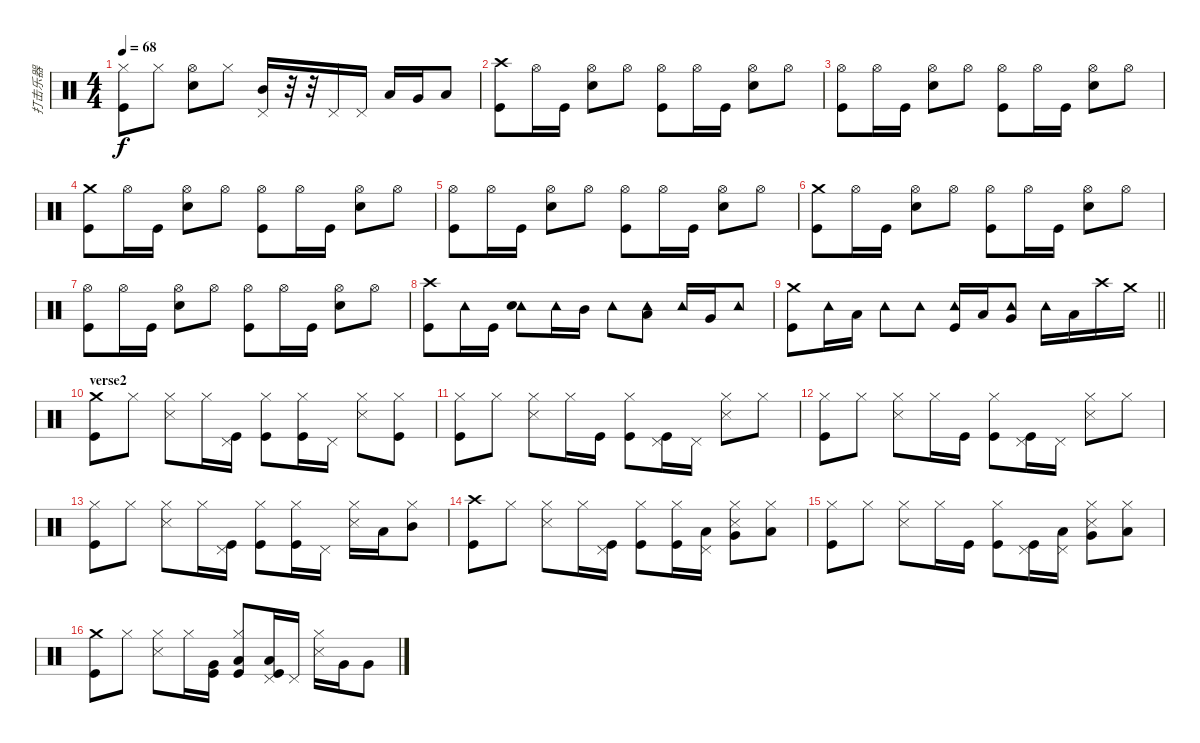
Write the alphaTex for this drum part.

\track ("打击乐器" "打击乐器") {instrument percussion}
\staff {score}
\articulation defaults
\ts (4 4)
\tempo 68
\clef neutral
\ks c
("Kick (hit)" "Hi-Hat (closed)").8{dy f} "Hi-Hat (closed)".8 ("Snare (hit) 2" "Hi-Hat (open)").8 "Hi-Hat (closed)".8 ("Mid Tom (hit)" "Pedal Hi-Hat (hit)").16 r.32 r.32 "Pedal Hi-Hat (hit)".16 "Pedal Hi-Hat (hit)".16 "Low Tom (hit)".16 "Very Low Tom (hit)".16 "Low Floor Tom (hit)".8 |
("Kick (hit)" "Crash high (hit)").8 "Hi-Hat (open)".16 "Kick (hit)".16 ("Hi-Hat (open)" "Snare (hit) 2").8 "Hi-Hat (open)".8 ("Hi-Hat (open)" "Kick (hit)").8 "Hi-Hat (open)".16 "Kick (hit)".16 ("Hi-Hat (open)" "Snare (hit) 2").8 "Hi-Hat (open)".8 |
("Hi-Hat (open)" "Kick (hit)").8 "Hi-Hat (open)".16 "Kick (hit)".16 ("Hi-Hat (open)" "Snare (hit) 2").8 "Hi-Hat (open)".8 ("Hi-Hat (open)" "Kick (hit)").8 "Hi-Hat (open)".16 "Kick (hit)".16 ("Hi-Hat (open)" "Snare (hit) 2").8 "Hi-Hat (open)".8 |
("Kick (hit)" "Crash medium (hit)").8 "Hi-Hat (open)".16 "Kick (hit)".16 ("Hi-Hat (open)" "Snare (hit) 2").8 "Hi-Hat (open)".8 ("Hi-Hat (open)" "Kick (hit)").8 "Hi-Hat (open)".16 "Kick (hit)".16 ("Hi-Hat (open)" "Snare (hit) 2").8 "Hi-Hat (open)".8 |
("Hi-Hat (open)" "Kick (hit)").8 "Hi-Hat (open)".16 "Kick (hit)".16 ("Hi-Hat (open)" "Snare (hit) 2").8 "Hi-Hat (open)".8 ("Hi-Hat (open)" "Kick (hit)").8 "Hi-Hat (open)".16 "Kick (hit)".16 ("Hi-Hat (open)" "Snare (hit) 2").8 "Hi-Hat (open)".8 |
("Kick (hit)" "Crash medium (hit)").8 "Hi-Hat (open)".16 "Kick (hit)".16 ("Hi-Hat (open)" "Snare (hit) 2").8 "Hi-Hat (open)".8 ("Hi-Hat (open)" "Kick (hit)").8 "Hi-Hat (open)".16 "Kick (hit)".16 ("Hi-Hat (open)" "Snare (hit) 2").8 "Hi-Hat (open)".8 |
("Hi-Hat (open)" "Kick (hit)").8 "Hi-Hat (open)".16 "Kick (hit)".16 ("Hi-Hat (open)" "Snare (hit) 2").8 "Hi-Hat (open)".8 ("Hi-Hat (open)" "Kick (hit)").8 "Hi-Hat (open)".16 "Kick (hit)".16 ("Hi-Hat (open)" "Snare (hit) 2").8 "Hi-Hat (open)".8 |
("Crash high (hit)" "Kick (hit)").8 "Tambourine (hit)".16 "Kick (hit)".16 ("Tambourine (hit)" "Snare (hit) 2").8 "Tambourine (hit)".16 "Mid Tom (hit)".16 "Tambourine (hit)".8 ("Tambourine (hit)" "Low Tom (hit)").8 "Tambourine (hit)".16 "Very Low Tom (hit)".16 "Tambourine (hit)".8 |
\barLineRight lightlight
("Kick (hit)" "Crash medium (hit)").8 "Tambourine (hit)".16 "Low Tom (hit)".16 "Tambourine (hit)".8 "Tambourine (hit)".8 ("Tambourine (hit)" "Kick (hit)").16 "Low Tom (hit)".16 ("Tambourine (hit)" "Very Low Tom (hit)").8 "Tambourine (hit)".16 "Low Tom (hit)".16 "Crash high (hit)".16 "Crash medium (hit)".16 |
\section ("" "verse2")
("Kick (hit)" "Crash medium (hit)").8 "Hi-Hat (closed)".8 ("Snare (side stick) 3" "Hi-Hat (closed)").8 "Hi-Hat (closed)".16 ("Pedal Hi-Hat (hit)" "Kick (hit)").16 ("Hi-Hat (closed)" "Kick (hit)").8 ("Hi-Hat (closed)" "Kick (hit)").16 "Pedal Hi-Hat (hit)".16 ("Snare (side stick) 3" "Hi-Hat (closed)").8 ("Kick (hit)" "Hi-Hat (closed)").8 |
("Kick (hit)" "Hi-Hat (closed)").8 "Hi-Hat (closed)".8 ("Snare (side stick) 3" "Hi-Hat (closed)").8 "Hi-Hat (closed)".16 "Kick (hit)".16 ("Hi-Hat (closed)" "Kick (hit)").8 ("Pedal Hi-Hat (hit)" "Kick (hit)").16 "Pedal Hi-Hat (hit)".16 ("Snare (side stick) 3" "Hi-Hat (closed)").8 "Hi-Hat (closed)".8 |
("Kick (hit)" "Hi-Hat (closed)").8 "Hi-Hat (closed)".8 ("Snare (side stick) 3" "Hi-Hat (closed)").8 "Hi-Hat (closed)".16 "Kick (hit)".16 ("Hi-Hat (closed)" "Kick (hit)").8 ("Pedal Hi-Hat (hit)" "Kick (hit)").16 "Pedal Hi-Hat (hit)".16 ("Snare (side stick) 3" "Hi-Hat (closed)").8 "Hi-Hat (closed)".8 |
("Kick (hit)" "Hi-Hat (closed)").8 "Hi-Hat (closed)".8 ("Snare (side stick) 3" "Hi-Hat (closed)").8 "Hi-Hat (closed)".16 ("Pedal Hi-Hat (hit)" "Kick (hit)").16 ("Hi-Hat (closed)" "Kick (hit)").8 ("Hi-Hat (closed)" "Kick (hit)").16 "Pedal Hi-Hat (hit)".16 ("Snare (side stick) 3" "Hi-Hat (closed)").16 "Low Tom (hit)".16 ("Mid Tom (hit)" "Hi-Hat (closed)").8 |
("Kick (hit)" "Crash high (hit)").8 "Hi-Hat (closed)".8 ("Snare (side stick) 3" "Hi-Hat (closed)").8 "Hi-Hat (closed)".16 ("Pedal Hi-Hat (hit)" "Kick (hit)").16 ("Hi-Hat (closed)" "Kick (hit)").8 ("Hi-Hat (closed)" "Kick (hit)").16 ("Pedal Hi-Hat (hit)" "Low Tom (hit)").16 ("Snare (side stick) 3" "Hi-Hat (closed)" "Very Low Tom (hit)").8 ("Hi-Hat (closed)" "Low Floor Tom (hit)").8 |
("Kick (hit)" "Hi-Hat (closed)").8 "Hi-Hat (closed)".8 ("Snare (side stick) 3" "Hi-Hat (closed)").8 "Hi-Hat (closed)".16 "Kick (hit)".16 ("Hi-Hat (closed)" "Kick (hit)").8 ("Pedal Hi-Hat (hit)" "Kick (hit)").16 ("Pedal Hi-Hat (hit)" "Low Tom (hit)").16 ("Snare (side stick) 3" "Hi-Hat (closed)" "Very Low Tom (hit)").8 ("Hi-Hat (closed)" "Low Floor Tom (hit)").8 |
("Kick (hit)" "Crash medium (hit)").8 "Hi-Hat (closed)".8 ("Snare (side stick) 3" "Hi-Hat (closed)").8 "Hi-Hat (closed)".16 ("Kick (hit)" "Very Low Tom (hit)").16 ("Hi-Hat (closed)" "Kick (hit)" "Low Floor Tom (hit)").8 ("Pedal Hi-Hat (hit)" "Kick (hit)" "Low Floor Tom (hit)").16 "Pedal Hi-Hat (hit)".16 ("Snare (side stick) 3" "Hi-Hat (closed)").16 "Very Low Tom (hit)".16 "Very Low Tom (hit)".8
